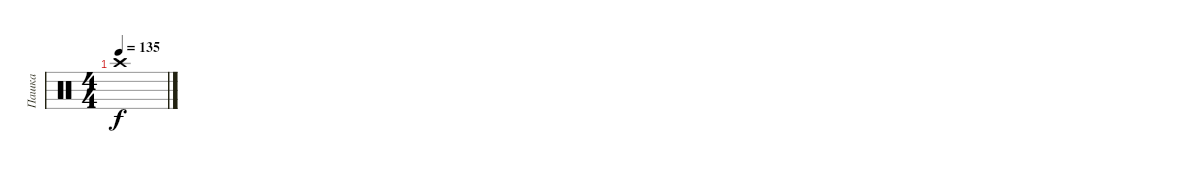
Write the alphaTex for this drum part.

\track ("Пашка" "Пашка") {instrument percussion}
\staff {score}
\articulation defaults
\ts (4 4)
\tempo 135
\clef neutral
\ks c "Crash high (hit)".1{dy f}
